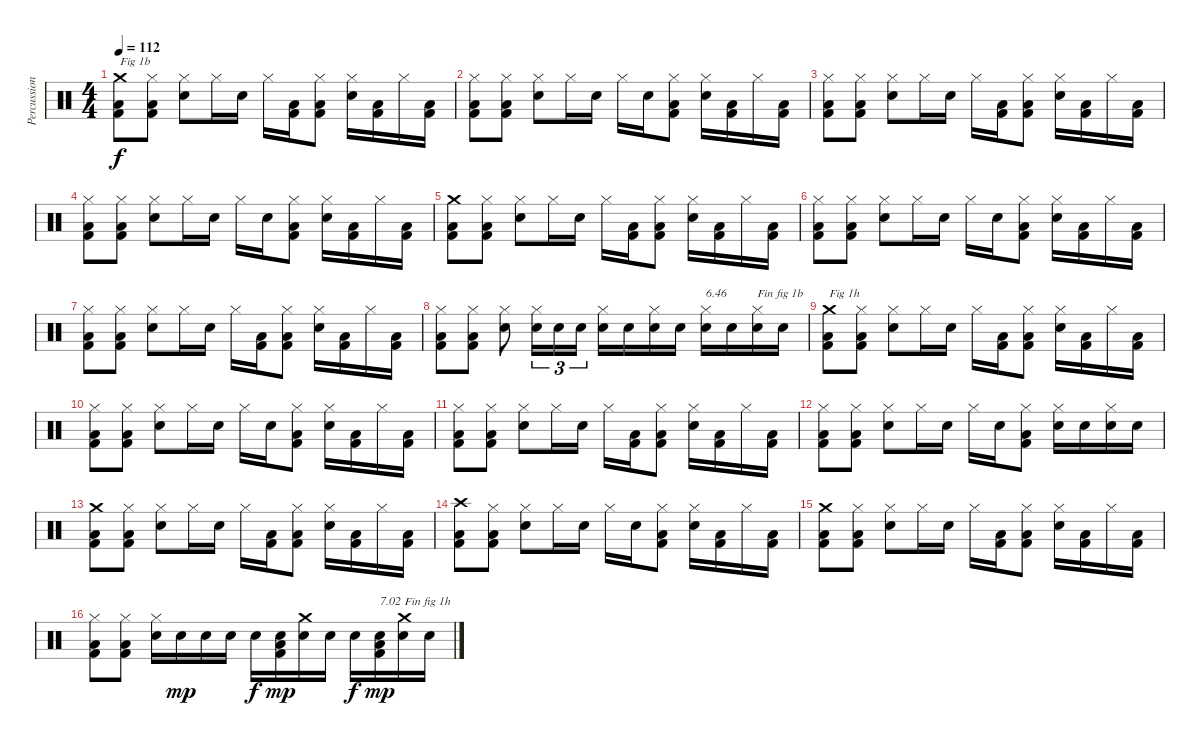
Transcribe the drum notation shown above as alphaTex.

\track ("Percussions" "Percussion") {instrument percussion}
\staff {score}
\articulation defaults
\ts (4 4)
\tempo 112
\clef neutral
\ks c
("Kick (hit) 2" "Low Floor Tom (hit)" "Crash medium (hit)").8{txt "Fig 1b" dy f} ("Kick (hit) 2" "Low Floor Tom (hit)" "Hi-Hat (closed)").8 ("Snare (hit) 2" "Hi-Hat (closed)").8 "Hi-Hat (closed)".16 "Snare (hit) 2".16 "Hi-Hat (closed)".16 ("Kick (hit) 2" "Low Floor Tom (hit)").16 ("Kick (hit) 2" "Low Floor Tom (hit)" "Hi-Hat (closed)").8 ("Snare (hit) 2" "Hi-Hat (closed)").16 ("Kick (hit) 2" "Low Floor Tom (hit)").16 "Hi-Hat (closed)".16 ("Kick (hit) 2" "Low Floor Tom (hit)").16 |
("Kick (hit) 2" "Low Floor Tom (hit)" "Hi-Hat (closed)").8 ("Kick (hit) 2" "Low Floor Tom (hit)" "Hi-Hat (closed)").8 ("Snare (hit) 2" "Hi-Hat (closed)").8 "Hi-Hat (closed)".16 "Snare (hit) 2".16 "Hi-Hat (closed)".16 "Snare (hit) 2".16 ("Kick (hit) 2" "Low Floor Tom (hit)" "Hi-Hat (closed)").8 ("Snare (hit) 2" "Hi-Hat (closed)").16 ("Kick (hit) 2" "Low Floor Tom (hit)").16 "Hi-Hat (closed)".16 ("Kick (hit) 2" "Low Floor Tom (hit)").16 |
("Kick (hit) 2" "Low Floor Tom (hit)" "Hi-Hat (closed)").8 ("Kick (hit) 2" "Low Floor Tom (hit)" "Hi-Hat (closed)").8 ("Snare (hit) 2" "Hi-Hat (closed)").8 "Hi-Hat (closed)".16 "Snare (hit) 2".16 "Hi-Hat (closed)".16 ("Kick (hit) 2" "Low Floor Tom (hit)").16 ("Kick (hit) 2" "Low Floor Tom (hit)" "Hi-Hat (closed)").8 ("Snare (hit) 2" "Hi-Hat (closed)").16 ("Kick (hit) 2" "Low Floor Tom (hit)").16 "Hi-Hat (closed)".16 ("Kick (hit) 2" "Low Floor Tom (hit)").16 |
("Kick (hit) 2" "Low Floor Tom (hit)" "Hi-Hat (closed)").8 ("Kick (hit) 2" "Low Floor Tom (hit)" "Hi-Hat (closed)").8 ("Snare (hit) 2" "Hi-Hat (closed)").8 "Hi-Hat (closed)".16 "Snare (hit) 2".16 "Hi-Hat (closed)".16 "Snare (hit) 2".16 ("Kick (hit) 2" "Low Floor Tom (hit)" "Hi-Hat (closed)").8 ("Snare (hit) 2" "Hi-Hat (closed)").16 ("Kick (hit) 2" "Low Floor Tom (hit)").16 "Hi-Hat (closed)".16 ("Kick (hit) 2" "Low Floor Tom (hit)").16 |
("Kick (hit) 2" "Low Floor Tom (hit)" "Crash medium (hit)").8 ("Kick (hit) 2" "Low Floor Tom (hit)" "Hi-Hat (closed)").8 ("Snare (hit) 2" "Hi-Hat (closed)").8 "Hi-Hat (closed)".16 "Snare (hit) 2".16 "Hi-Hat (closed)".16 ("Kick (hit) 2" "Low Floor Tom (hit)").16 ("Kick (hit) 2" "Low Floor Tom (hit)" "Hi-Hat (closed)").8 ("Snare (hit) 2" "Hi-Hat (closed)").16 ("Kick (hit) 2" "Low Floor Tom (hit)").16 "Hi-Hat (closed)".16 ("Kick (hit) 2" "Low Floor Tom (hit)").16 |
("Kick (hit) 2" "Low Floor Tom (hit)" "Hi-Hat (closed)").8 ("Kick (hit) 2" "Low Floor Tom (hit)" "Hi-Hat (closed)").8 ("Snare (hit) 2" "Hi-Hat (closed)").8 "Hi-Hat (closed)".16 "Snare (hit) 2".16 "Hi-Hat (closed)".16 "Snare (hit) 2".16 ("Kick (hit) 2" "Low Floor Tom (hit)" "Hi-Hat (closed)").8 ("Snare (hit) 2" "Hi-Hat (closed)").16 ("Kick (hit) 2" "Low Floor Tom (hit)").16 "Hi-Hat (closed)".16 ("Kick (hit) 2" "Low Floor Tom (hit)").16 |
("Kick (hit) 2" "Low Floor Tom (hit)" "Hi-Hat (closed)").8 ("Kick (hit) 2" "Low Floor Tom (hit)" "Hi-Hat (closed)").8 ("Snare (hit) 2" "Hi-Hat (closed)").8 "Hi-Hat (closed)".16 "Snare (hit) 2".16 "Hi-Hat (closed)".16 ("Kick (hit) 2" "Low Floor Tom (hit)").16 ("Kick (hit) 2" "Low Floor Tom (hit)" "Hi-Hat (closed)").8 ("Snare (hit) 2" "Hi-Hat (closed)").16 ("Kick (hit) 2" "Low Floor Tom (hit)").16 "Hi-Hat (closed)".16 ("Kick (hit) 2" "Low Floor Tom (hit)").16 |
("Kick (hit) 2" "Low Floor Tom (hit)" "Hi-Hat (closed)").8 ("Kick (hit) 2" "Low Floor Tom (hit)" "Hi-Hat (closed)").8 ("Snare (hit) 2" "Hi-Hat (closed)").8 ("Snare (hit) 2" "Hi-Hat (closed)").16{tu (3 2)} "Snare (hit) 2".16{tu (3 2)} "Snare (hit) 2".16{tu (3 2)} ("Snare (hit) 2" "Hi-Hat (closed)").16 "Snare (hit) 2".16 ("Snare (hit) 2" "Hi-Hat (closed)").16 "Snare (hit) 2".16 ("Snare (hit) 2" "Hi-Hat (closed)").16{txt "6.46"} "Snare (hit) 2".16 ("Snare (hit) 2" "Hi-Hat (closed)").16{txt "Fin fig 1b"} "Snare (hit) 2".16 |
("Kick (hit) 2" "Low Floor Tom (hit)" "Crash medium (hit)").8{txt "Fig 1h"} ("Kick (hit) 2" "Low Floor Tom (hit)" "Hi-Hat (closed)").8 ("Snare (hit) 2" "Hi-Hat (closed)").8 "Hi-Hat (closed)".16 "Snare (hit) 2".16 "Hi-Hat (closed)".16 ("Kick (hit) 2" "Low Floor Tom (hit)").16 ("Kick (hit) 2" "Low Floor Tom (hit)" "Hi-Hat (closed)").8 ("Snare (hit) 2" "Hi-Hat (closed)").16 ("Kick (hit) 2" "Low Floor Tom (hit)").16 "Hi-Hat (closed)".16 ("Kick (hit) 2" "Low Floor Tom (hit)").16 |
("Kick (hit) 2" "Low Floor Tom (hit)" "Hi-Hat (closed)").8 ("Kick (hit) 2" "Low Floor Tom (hit)" "Hi-Hat (closed)").8 ("Snare (hit) 2" "Hi-Hat (closed)").8 "Hi-Hat (closed)".16 "Snare (hit) 2".16 "Hi-Hat (closed)".16 "Snare (hit) 2".16 ("Kick (hit) 2" "Low Floor Tom (hit)" "Hi-Hat (closed)").8 ("Snare (hit) 2" "Hi-Hat (closed)").16 ("Kick (hit) 2" "Low Floor Tom (hit)").16 "Hi-Hat (closed)".16 ("Kick (hit) 2" "Low Floor Tom (hit)").16 |
("Kick (hit) 2" "Low Floor Tom (hit)" "Hi-Hat (closed)").8 ("Kick (hit) 2" "Low Floor Tom (hit)" "Hi-Hat (closed)").8 ("Snare (hit) 2" "Hi-Hat (closed)").8 "Hi-Hat (closed)".16 "Snare (hit) 2".16 "Hi-Hat (closed)".16 ("Kick (hit) 2" "Low Floor Tom (hit)").16 ("Kick (hit) 2" "Low Floor Tom (hit)" "Hi-Hat (closed)").8 ("Snare (hit) 2" "Hi-Hat (closed)").16 ("Kick (hit) 2" "Low Floor Tom (hit)").16 "Hi-Hat (closed)".16 ("Kick (hit) 2" "Low Floor Tom (hit)").16 |
("Kick (hit) 2" "Low Floor Tom (hit)" "Hi-Hat (closed)").8 ("Kick (hit) 2" "Low Floor Tom (hit)" "Hi-Hat (closed)").8 ("Snare (hit) 2" "Hi-Hat (closed)").8 "Hi-Hat (closed)".16 "Snare (hit) 2".16 "Hi-Hat (closed)".16 "Snare (hit) 2".16 ("Kick (hit) 2" "Low Floor Tom (hit)" "Hi-Hat (closed)").8 ("Snare (hit) 2" "Hi-Hat (closed)").16 "Snare (hit) 2".16 ("Snare (hit) 2" "Hi-Hat (closed)").16 "Snare (hit) 2".16 |
("Kick (hit) 2" "Low Floor Tom (hit)" "Crash medium (hit)").8 ("Kick (hit) 2" "Low Floor Tom (hit)" "Hi-Hat (closed)").8 ("Snare (hit) 2" "Hi-Hat (closed)").8 "Hi-Hat (closed)".16 "Snare (hit) 2".16 "Hi-Hat (closed)".16 ("Kick (hit) 2" "Low Floor Tom (hit)").16 ("Kick (hit) 2" "Low Floor Tom (hit)" "Hi-Hat (closed)").8 ("Snare (hit) 2" "Hi-Hat (closed)").16 ("Kick (hit) 2" "Low Floor Tom (hit)").16 "Hi-Hat (closed)".16 ("Kick (hit) 2" "Low Floor Tom (hit)").16 |
("Kick (hit) 2" "Low Floor Tom (hit)" "Crash high (hit)").8 ("Kick (hit) 2" "Low Floor Tom (hit)" "Hi-Hat (closed)").8 ("Snare (hit) 2" "Hi-Hat (closed)").8 "Hi-Hat (closed)".16 "Snare (hit) 2".16 "Hi-Hat (closed)".16 "Snare (hit) 2".16 ("Kick (hit) 2" "Low Floor Tom (hit)" "Hi-Hat (closed)").8 ("Snare (hit) 2" "Hi-Hat (closed)").16 ("Kick (hit) 2" "Low Floor Tom (hit)").16 "Hi-Hat (closed)".16 ("Kick (hit) 2" "Low Floor Tom (hit)").16 |
("Kick (hit) 2" "Low Floor Tom (hit)" "Crash medium (hit)").8 ("Kick (hit) 2" "Low Floor Tom (hit)" "Hi-Hat (closed)").8 ("Snare (hit) 2" "Hi-Hat (closed)").8 "Hi-Hat (closed)".16 "Snare (hit) 2".16 "Hi-Hat (closed)".16 ("Kick (hit) 2" "Low Floor Tom (hit)").16 ("Kick (hit) 2" "Low Floor Tom (hit)" "Hi-Hat (closed)").8 ("Snare (hit) 2" "Hi-Hat (closed)").16 ("Kick (hit) 2" "Low Floor Tom (hit)").16 "Hi-Hat (closed)".16 ("Kick (hit) 2" "Low Floor Tom (hit)").16 |
("Kick (hit) 2" "Low Floor Tom (hit)" "Hi-Hat (closed)").8 ("Kick (hit) 2" "Low Floor Tom (hit)" "Hi-Hat (closed)").8 ("Snare (hit) 2" "Hi-Hat (closed)").16 "Snare (hit) 2".16{dy mp} "Snare (hit) 2".16 "Snare (hit) 2".16 "Snare (hit) 2".16{dy f} ("Kick (hit) 2" "Low Floor Tom (hit)" "Snare (hit) 2").16{dy mp} ("Snare (hit) 2" "Crash medium (hit)").16 "Snare (hit) 2".16 "Snare (hit) 2".16{dy f} ("Kick (hit) 2" "Low Floor Tom (hit)" "Snare (hit) 2").16{txt "7.02" dy mp} ("Snare (hit) 2" "Crash medium (hit)").16{txt "Fin fig 1h"} "Snare (hit) 2".16
